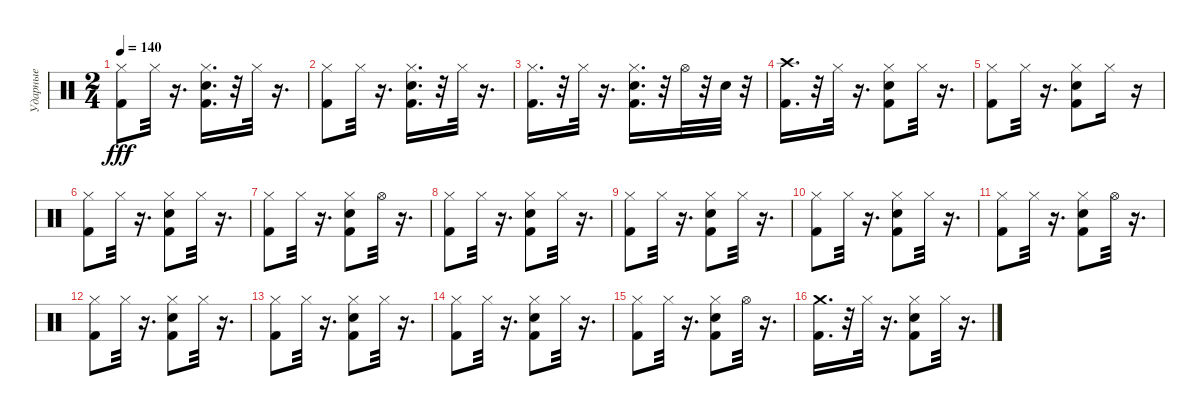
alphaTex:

\track ("Ударные" "Ударные") {instrument percussion}
\staff {score}
\articulation defaults
\ts (2 4)
\tempo 140
\clef neutral
\ks c
("Kick (hit) 2" "Hi-Hat (closed)").8{dy fff} "Hi-Hat (closed)".32 r.16{d} ("Snare (hit) 2" "Kick (hit) 2" "Hi-Hat (closed)").16{d} r.32 "Hi-Hat (closed)".32 r.16{d} |
("Kick (hit) 2" "Hi-Hat (closed)").8 "Hi-Hat (closed)".32 r.16{d} ("Hi-Hat (closed)" "Snare (hit) 2" "Kick (hit) 2").16{d} r.32 "Hi-Hat (closed)".32 r.16{d} |
("Kick (hit) 2" "Hi-Hat (closed)").16{d} r.32 "Hi-Hat (closed)".32 r.16{d} ("Snare (hit) 2" "Kick (hit) 2" "Hi-Hat (closed)").16{d} r.32 "Hi-Hat (open)".32 r.32 "Snare (hit) 2".32 r.32 |
("Kick (hit) 2" "Crash high (hit)").16{d} r.32 "Hi-Hat (closed)".32 r.16{d} ("Kick (hit) 2" "Snare (hit) 2" "Hi-Hat (closed)").8 "Hi-Hat (closed)".32 r.16{d} |
("Kick (hit) 2" "Hi-Hat (closed)").8 "Hi-Hat (closed)".32 r.16{d} ("Snare (hit) 2" "Kick (hit) 2" "Hi-Hat (closed)").8 "Hi-Hat (closed)".16 r.16 |
("Kick (hit) 2" "Hi-Hat (closed)").8 "Hi-Hat (closed)".32 r.16{d} ("Snare (hit) 2" "Kick (hit) 2" "Hi-Hat (closed)").8 "Hi-Hat (closed)".32 r.16{d} |
("Kick (hit) 2" "Hi-Hat (closed)").8 "Hi-Hat (closed)".32 r.16{d} ("Kick (hit) 2" "Snare (hit) 2" "Hi-Hat (closed)").8 "Hi-Hat (open)".32 r.16{d} |
("Kick (hit) 2" "Hi-Hat (closed)").8 "Hi-Hat (closed)".32 r.16{d} ("Snare (hit) 2" "Kick (hit) 2" "Hi-Hat (closed)").8 "Hi-Hat (closed)".32 r.16{d} |
("Kick (hit) 2" "Hi-Hat (closed)").8 "Hi-Hat (closed)".32 r.16{d} ("Snare (hit) 2" "Kick (hit) 2" "Hi-Hat (closed)").8 "Hi-Hat (closed)".32 r.16{d} |
("Kick (hit) 2" "Hi-Hat (closed)").8 "Hi-Hat (closed)".32 r.16{d} ("Hi-Hat (closed)" "Snare (hit) 2" "Kick (hit) 2").8 "Hi-Hat (closed)".32 r.16{d} |
("Kick (hit) 2" "Hi-Hat (closed)").8 "Hi-Hat (closed)".32 r.16{d} ("Kick (hit) 2" "Hi-Hat (closed)" "Snare (hit) 2").8 "Hi-Hat (open)".32 r.16{d} |
("Kick (hit) 2" "Hi-Hat (closed)").8 "Hi-Hat (closed)".32 r.16{d} ("Kick (hit) 2" "Hi-Hat (closed)" "Snare (hit) 2").8 "Hi-Hat (closed)".32 r.16{d} |
("Kick (hit) 2" "Hi-Hat (closed)").8 "Hi-Hat (closed)".32 r.16{d} ("Snare (hit) 2" "Kick (hit) 2" "Hi-Hat (closed)").8 "Hi-Hat (closed)".32 r.16{d} |
("Kick (hit) 2" "Hi-Hat (closed)").8 "Hi-Hat (closed)".32 r.16{d} ("Kick (hit) 2" "Hi-Hat (closed)" "Snare (hit) 2").8 "Hi-Hat (closed)".32 r.16{d} |
("Kick (hit) 2" "Hi-Hat (closed)").8 "Hi-Hat (closed)".32 r.16{d} ("Kick (hit) 2" "Hi-Hat (closed)" "Snare (hit) 2").8 "Hi-Hat (open)".32 r.16{d} |
("Kick (hit) 2" "Crash medium (hit)").16{d} r.32 "Hi-Hat (closed)".32 r.16{d} ("Kick (hit) 2" "Snare (hit) 2" "Hi-Hat (closed)").8 "Hi-Hat (closed)".32 r.16{d}
